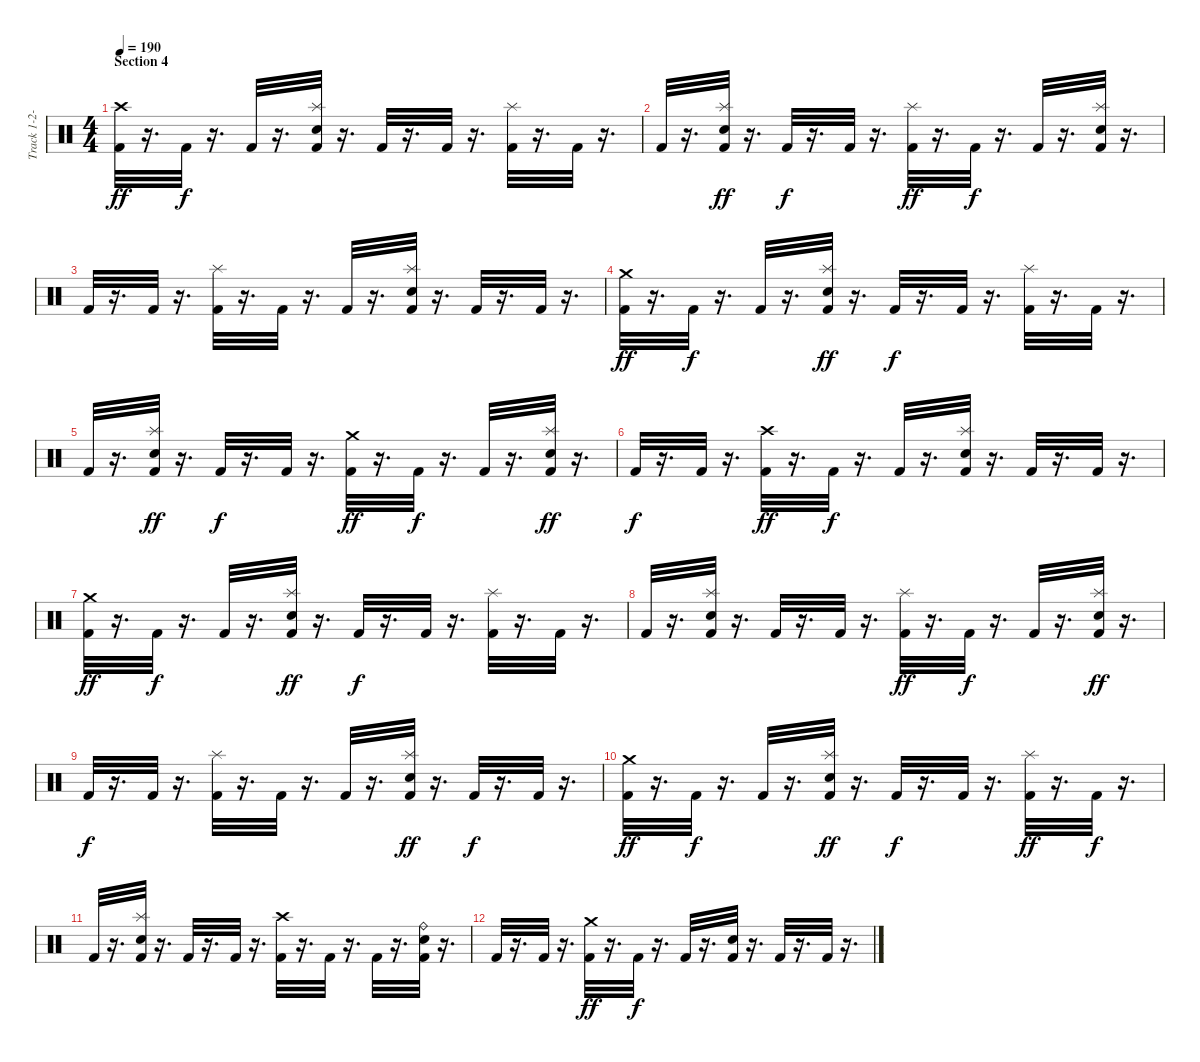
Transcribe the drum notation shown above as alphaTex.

\track ("Track 1-2-3-4-5-6-7-8" "Track 1-2-") {instrument percussion}
\staff {score}
\articulation defaults
\ts (4 4)
\section ("" "Section 4")
\tempo 190
\clef neutral
\ks c
("Crash high (hit)" "Kick (hit) 2").32{dy ff} r.16{d} "Kick (hit) 2".32{dy f} r.16{d} "Kick (hit) 2".32 r.16{d} ("Splash (hit)" "Kick (hit) 2" "Electric Snare (hit)").32 r.16{d} "Kick (hit) 2".32 r.16{d} "Kick (hit) 2".32 r.16{d} ("Splash (hit)" "Kick (hit) 2").32 r.16{d} "Kick (hit) 2".32 r.16{d} |
"Kick (hit) 2".32 r.16{d} ("Splash (hit)" "Kick (hit) 2" "Electric Snare (hit)").32{dy ff} r.16{d} "Kick (hit) 2".32{dy f} r.16{d} "Kick (hit) 2".32 r.16{d} ("Splash (hit)" "Kick (hit) 2").32{dy ff} r.16{d} "Kick (hit) 2".32{dy f} r.16{d} "Kick (hit) 2".32 r.16{d} ("Splash (hit)" "Kick (hit) 2" "Electric Snare (hit)").32 r.16{d} |
"Kick (hit) 2".32 r.16{d} "Kick (hit) 2".32 r.16{d} ("Splash (hit)" "Kick (hit) 2").32 r.16{d} "Kick (hit) 2".32 r.16{d} "Kick (hit) 2".32 r.16{d} ("Splash (hit)" "Kick (hit) 2" "Electric Snare (hit)").32 r.16{d} "Kick (hit) 2".32 r.16{d} "Kick (hit) 2".32 r.16{d} |
("Crash medium (hit)" "Kick (hit) 2").32{dy ff} r.16{d} "Kick (hit) 2".32{dy f} r.16{d} "Kick (hit) 2".32 r.16{d} ("Splash (hit)" "Kick (hit) 2" "Electric Snare (hit)").32{dy ff} r.16{d} "Kick (hit) 2".32{dy f} r.16{d} "Kick (hit) 2".32 r.16{d} ("Splash (hit)" "Kick (hit) 2").32 r.16{d} "Kick (hit) 2".32 r.16{d} |
"Kick (hit) 2".32 r.16{d} ("Splash (hit)" "Kick (hit) 2" "Electric Snare (hit)").32{dy ff} r.16{d} "Kick (hit) 2".32{dy f} r.16{d} "Kick (hit) 2".32 r.16{d} ("Crash medium (hit)" "Kick (hit) 2").32{dy ff} r.16{d} "Kick (hit) 2".32{dy f} r.16{d} "Kick (hit) 2".32 r.16{d} ("Splash (hit)" "Kick (hit) 2" "Electric Snare (hit)").32{dy ff} r.16{d} |
"Kick (hit) 2".32{dy f} r.16{d} "Kick (hit) 2".32 r.16{d} ("Crash high (hit)" "Kick (hit) 2").32{dy ff} r.16{d} "Kick (hit) 2".32{dy f} r.16{d} "Kick (hit) 2".32 r.16{d} ("Splash (hit)" "Kick (hit) 2" "Electric Snare (hit)").32 r.16{d} "Kick (hit) 2".32 r.16{d} "Kick (hit) 2".32 r.16{d} |
("Crash medium (hit)" "Kick (hit) 2").32{dy ff} r.16{d} "Kick (hit) 2".32{dy f} r.16{d} "Kick (hit) 2".32 r.16{d} ("Splash (hit)" "Kick (hit) 2" "Electric Snare (hit)").32{dy ff} r.16{d} "Kick (hit) 2".32{dy f} r.16{d} "Kick (hit) 2".32 r.16{d} ("Splash (hit)" "Kick (hit) 2").32 r.16{d} "Kick (hit) 2".32 r.16{d} |
"Kick (hit) 2".32 r.16{d} ("Splash (hit)" "Kick (hit) 2" "Electric Snare (hit)").32 r.16{d} "Kick (hit) 2".32 r.16{d} "Kick (hit) 2".32 r.16{d} ("Splash (hit)" "Kick (hit) 2").32{dy ff} r.16{d} "Kick (hit) 2".32{dy f} r.16{d} "Kick (hit) 2".32 r.16{d} ("Splash (hit)" "Kick (hit) 2" "Electric Snare (hit)").32{dy ff} r.16{d} |
"Kick (hit) 2".32{dy f} r.16{d} "Kick (hit) 2".32 r.16{d} ("Splash (hit)" "Kick (hit) 2").32 r.16{d} "Kick (hit) 2".32 r.16{d} "Kick (hit) 2".32 r.16{d} ("Splash (hit)" "Kick (hit) 2" "Electric Snare (hit)").32{dy ff} r.16{d} "Kick (hit) 2".32{dy f} r.16{d} "Kick (hit) 2".32 r.16{d} |
("Crash medium (hit)" "Kick (hit) 2").32{dy ff} r.16{d} "Kick (hit) 2".32{dy f} r.16{d} "Kick (hit) 2".32 r.16{d} ("Splash (hit)" "Kick (hit) 2" "Electric Snare (hit)").32{dy ff} r.16{d} "Kick (hit) 2".32{dy f} r.16{d} "Kick (hit) 2".32 r.16{d} ("Splash (hit)" "Kick (hit) 2").32{dy ff} r.16{d} "Kick (hit) 2".32{dy f} r.16{d} |
"Kick (hit) 2".32 r.16{d} ("Splash (hit)" "Kick (hit) 2" "Electric Snare (hit)").32 r.16{d} "Kick (hit) 2".32 r.16{d} "Kick (hit) 2".32 r.16{d} ("Crash high (hit)" "Kick (hit) 2").32 r.16{d} "Kick (hit) 2".32 r.16{d} "Kick (hit) 2".32 r.16{d} ("Ride (bell)" "Kick (hit) 2" "Electric Snare (hit)").32 r.16{d} |
"Kick (hit) 2".32 r.16{d} "Kick (hit) 2".32 r.16{d} ("Crash medium (hit)" "Kick (hit) 2").32{dy ff} r.16{d} "Kick (hit) 2".32{dy f} r.16{d} "Kick (hit) 2".32 r.16{d} ("Kick (hit) 2" "Electric Snare (hit)").32 r.16{d} "Kick (hit) 2".32 r.16{d} "Kick (hit) 2".32 r.16{d}
